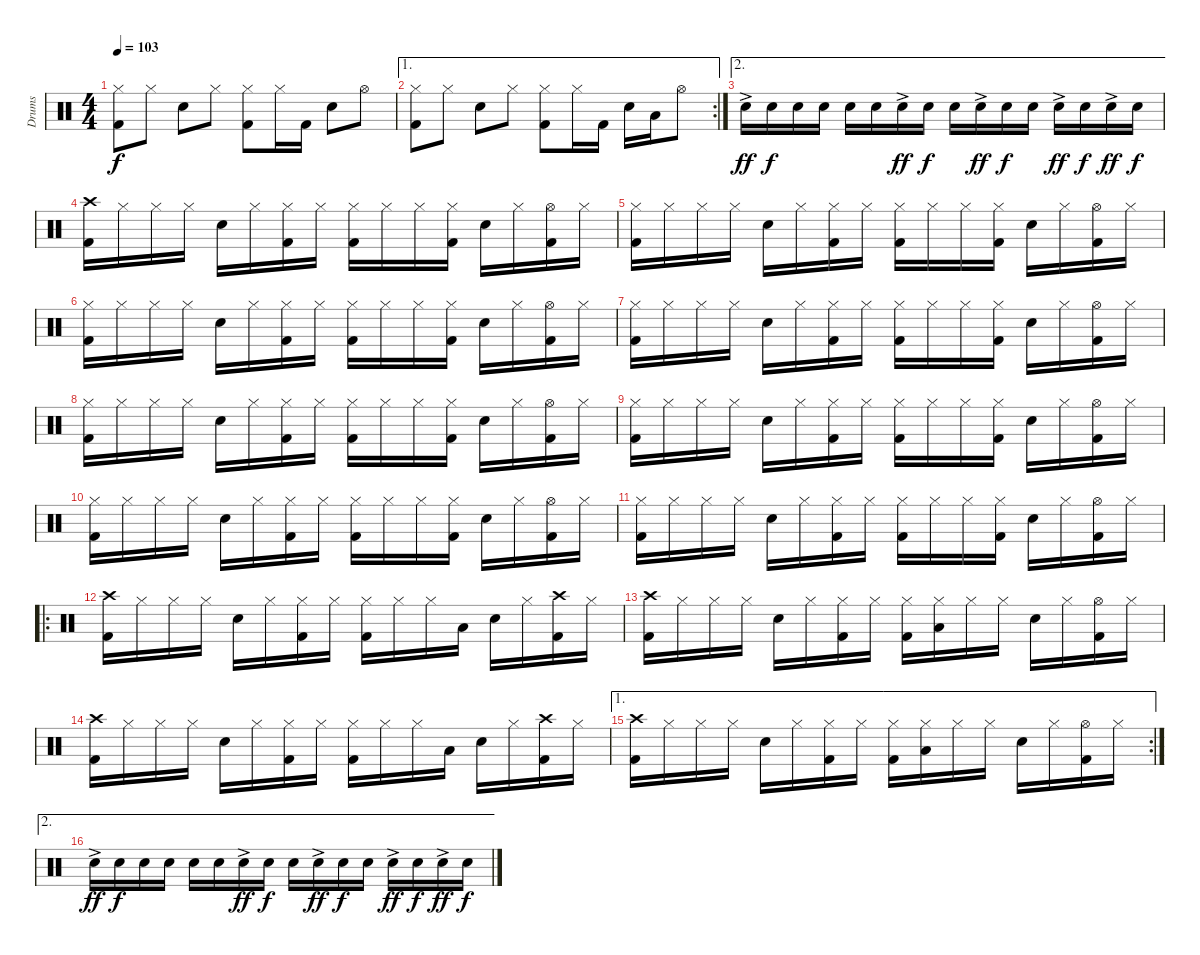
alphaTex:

\track ("Drums" "Drums") {instrument percussion}
\staff {score}
\articulation defaults
\ts (4 4)
\tempo 103
\clef neutral
\ks c
("Hi-Hat (closed)" "Kick (hit) 2").8{dy f} "Hi-Hat (closed)".8 "Snare (hit) 2".8 "Hi-Hat (closed)".8 ("Hi-Hat (closed)" "Kick (hit) 2").8 "Hi-Hat (closed)".16 "Kick (hit) 2".16 "Snare (hit) 2".8 "Hi-Hat (open)".8 |
\ae 1
\rc 2
("Hi-Hat (closed)" "Kick (hit) 2").8 "Hi-Hat (closed)".8 "Snare (hit) 2".8 "Hi-Hat (closed)".8 ("Hi-Hat (closed)" "Kick (hit) 2").8 "Hi-Hat (closed)".16 "Kick (hit) 2".16 "Snare (hit) 2".16 "Low Floor Tom (hit)".16 "Hi-Hat (open)".8 |
\ae 2 "Snare (hit) 2"{ac}.16{dy ff} "Snare (hit) 2".16{dy f} "Snare (hit) 2".16 "Snare (hit) 2".16 "Snare (hit) 2".16 "Snare (hit) 2".16 "Snare (hit) 2"{ac}.16{dy ff} "Snare (hit) 2".16{dy f} "Snare (hit) 2".16 "Snare (hit) 2"{ac}.16{dy ff} "Snare (hit) 2".16{dy f} "Snare (hit) 2".16 "Snare (hit) 2"{ac}.16{dy ff} "Snare (hit) 2".16{dy f} "Snare (hit) 2"{ac}.16{dy ff} "Snare (hit) 2".16{dy f}
|
("Crash high (hit)" "Kick (hit) 2").16 "Hi-Hat (closed)".16 "Hi-Hat (closed)".16 "Hi-Hat (closed)".16 "Snare (hit) 2".16 "Hi-Hat (closed)".16 ("Hi-Hat (closed)" "Kick (hit) 2").16 "Hi-Hat (closed)".16 ("Hi-Hat (closed)" "Kick (hit) 2").16 "Hi-Hat (closed)".16 "Hi-Hat (closed)".16 ("Hi-Hat (closed)" "Kick (hit) 2").16 "Snare (hit) 2".16 "Hi-Hat (closed)".16 ("Hi-Hat (open)" "Kick (hit) 2").16 "Hi-Hat (closed)".16 |
("Hi-Hat (closed)" "Kick (hit) 2").16 "Hi-Hat (closed)".16 "Hi-Hat (closed)".16 "Hi-Hat (closed)".16 "Snare (hit) 2".16 "Hi-Hat (closed)".16 ("Hi-Hat (closed)" "Kick (hit) 2").16 "Hi-Hat (closed)".16 ("Hi-Hat (closed)" "Kick (hit) 2").16 "Hi-Hat (closed)".16 "Hi-Hat (closed)".16 ("Hi-Hat (closed)" "Kick (hit) 2").16 "Snare (hit) 2".16 "Hi-Hat (closed)".16 ("Hi-Hat (open)" "Kick (hit) 2").16 "Hi-Hat (closed)".16 |
("Hi-Hat (closed)" "Kick (hit) 2").16 "Hi-Hat (closed)".16 "Hi-Hat (closed)".16 "Hi-Hat (closed)".16 "Snare (hit) 2".16 "Hi-Hat (closed)".16 ("Hi-Hat (closed)" "Kick (hit) 2").16 "Hi-Hat (closed)".16 ("Hi-Hat (closed)" "Kick (hit) 2").16 "Hi-Hat (closed)".16 "Hi-Hat (closed)".16 ("Hi-Hat (closed)" "Kick (hit) 2").16 "Snare (hit) 2".16 "Hi-Hat (closed)".16 ("Hi-Hat (open)" "Kick (hit) 2").16 "Hi-Hat (closed)".16 |
("Hi-Hat (closed)" "Kick (hit) 2").16 "Hi-Hat (closed)".16 "Hi-Hat (closed)".16 "Hi-Hat (closed)".16 "Snare (hit) 2".16 "Hi-Hat (closed)".16 ("Hi-Hat (closed)" "Kick (hit) 2").16 "Hi-Hat (closed)".16 ("Hi-Hat (closed)" "Kick (hit) 2").16 "Hi-Hat (closed)".16 "Hi-Hat (closed)".16 ("Hi-Hat (closed)" "Kick (hit) 2").16 "Snare (hit) 2".16 "Hi-Hat (closed)".16 ("Hi-Hat (open)" "Kick (hit) 2").16 "Hi-Hat (closed)".16 |
("Hi-Hat (closed)" "Kick (hit) 2").16 "Hi-Hat (closed)".16 "Hi-Hat (closed)".16 "Hi-Hat (closed)".16 "Snare (hit) 2".16 "Hi-Hat (closed)".16 ("Hi-Hat (closed)" "Kick (hit) 2").16 "Hi-Hat (closed)".16 ("Hi-Hat (closed)" "Kick (hit) 2").16 "Hi-Hat (closed)".16 "Hi-Hat (closed)".16 ("Hi-Hat (closed)" "Kick (hit) 2").16 "Snare (hit) 2".16 "Hi-Hat (closed)".16 ("Hi-Hat (open)" "Kick (hit) 2").16 "Hi-Hat (closed)".16 |
("Hi-Hat (closed)" "Kick (hit) 2").16 "Hi-Hat (closed)".16 "Hi-Hat (closed)".16 "Hi-Hat (closed)".16 "Snare (hit) 2".16 "Hi-Hat (closed)".16 ("Hi-Hat (closed)" "Kick (hit) 2").16 "Hi-Hat (closed)".16 ("Hi-Hat (closed)" "Kick (hit) 2").16 "Hi-Hat (closed)".16 "Hi-Hat (closed)".16 ("Hi-Hat (closed)" "Kick (hit) 2").16 "Snare (hit) 2".16 "Hi-Hat (closed)".16 ("Hi-Hat (open)" "Kick (hit) 2").16 "Hi-Hat (closed)".16 |
("Hi-Hat (closed)" "Kick (hit) 2").16 "Hi-Hat (closed)".16 "Hi-Hat (closed)".16 "Hi-Hat (closed)".16 "Snare (hit) 2".16 "Hi-Hat (closed)".16 ("Hi-Hat (closed)" "Kick (hit) 2").16 "Hi-Hat (closed)".16 ("Hi-Hat (closed)" "Kick (hit) 2").16 "Hi-Hat (closed)".16 "Hi-Hat (closed)".16 ("Hi-Hat (closed)" "Kick (hit) 2").16 "Snare (hit) 2".16 "Hi-Hat (closed)".16 ("Hi-Hat (open)" "Kick (hit) 2").16 "Hi-Hat (closed)".16 |
("Hi-Hat (closed)" "Kick (hit) 2").16 "Hi-Hat (closed)".16 "Hi-Hat (closed)".16 "Hi-Hat (closed)".16 "Snare (hit) 2".16 "Hi-Hat (closed)".16 ("Hi-Hat (closed)" "Kick (hit) 2").16 "Hi-Hat (closed)".16 ("Hi-Hat (closed)" "Kick (hit) 2").16 "Hi-Hat (closed)".16 "Hi-Hat (closed)".16 ("Hi-Hat (closed)" "Kick (hit) 2").16 "Snare (hit) 2".16 "Hi-Hat (closed)".16 ("Hi-Hat (open)" "Kick (hit) 2").16 "Hi-Hat (closed)".16 |
\ro
("Crash high (hit)" "Kick (hit) 2").16 "Hi-Hat (closed)".16 "Hi-Hat (closed)".16 "Hi-Hat (closed)".16 "Snare (hit) 2".16 "Hi-Hat (closed)".16 ("Hi-Hat (closed)" "Kick (hit) 2").16 "Hi-Hat (closed)".16 ("Hi-Hat (closed)" "Kick (hit) 2").16 "Hi-Hat (closed)".16 "Hi-Hat (closed)".16 "Low Floor Tom (hit)".16 "Snare (hit) 2".16 "Hi-Hat (closed)".16 ("Crash high (hit)" "Kick (hit) 2").16 "Hi-Hat (closed)".16 |
("Crash high (hit)" "Kick (hit) 2").16 "Hi-Hat (closed)".16 "Hi-Hat (closed)".16 "Hi-Hat (closed)".16 "Snare (hit) 2".16 "Hi-Hat (closed)".16 ("Hi-Hat (closed)" "Kick (hit) 2").16 "Hi-Hat (closed)".16 ("Hi-Hat (closed)" "Kick (hit) 2").16 ("Hi-Hat (closed)" "Low Floor Tom (hit)").16 "Hi-Hat (closed)".16 "Hi-Hat (closed)".16 "Snare (hit) 2".16 "Hi-Hat (closed)".16 ("Hi-Hat (open)" "Kick (hit) 2").16 "Hi-Hat (closed)".16 |
("Crash high (hit)" "Kick (hit) 2").16 "Hi-Hat (closed)".16 "Hi-Hat (closed)".16 "Hi-Hat (closed)".16 "Snare (hit) 2".16 "Hi-Hat (closed)".16 ("Hi-Hat (closed)" "Kick (hit) 2").16 "Hi-Hat (closed)".16 ("Hi-Hat (closed)" "Kick (hit) 2").16 "Hi-Hat (closed)".16 "Hi-Hat (closed)".16 "Low Floor Tom (hit)".16 "Snare (hit) 2".16 "Hi-Hat (closed)".16 ("Crash high (hit)" "Kick (hit) 2").16 "Hi-Hat (closed)".16 |
\ae 1
\rc 2
("Crash high (hit)" "Kick (hit) 2").16 "Hi-Hat (closed)".16 "Hi-Hat (closed)".16 "Hi-Hat (closed)".16 "Snare (hit) 2".16 "Hi-Hat (closed)".16 ("Hi-Hat (closed)" "Kick (hit) 2").16 "Hi-Hat (closed)".16 ("Hi-Hat (closed)" "Kick (hit) 2").16 ("Hi-Hat (closed)" "Low Floor Tom (hit)").16 "Hi-Hat (closed)".16 "Hi-Hat (closed)".16 "Snare (hit) 2".16 "Hi-Hat (closed)".16 ("Hi-Hat (open)" "Kick (hit) 2").16 "Hi-Hat (closed)".16 |
\ae 2 "Snare (hit) 2"{ac}.16{dy ff} "Snare (hit) 2".16{dy f} "Snare (hit) 2".16 "Snare (hit) 2".16 "Snare (hit) 2".16 "Snare (hit) 2".16 "Snare (hit) 2"{ac}.16{dy ff} "Snare (hit) 2".16{dy f} "Snare (hit) 2".16 "Snare (hit) 2"{ac}.16{dy ff} "Snare (hit) 2".16{dy f} "Snare (hit) 2".16 "Snare (hit) 2"{ac}.16{dy ff} "Snare (hit) 2".16{dy f} "Snare (hit) 2"{ac}.16{dy ff} "Snare (hit) 2".16{dy f}
